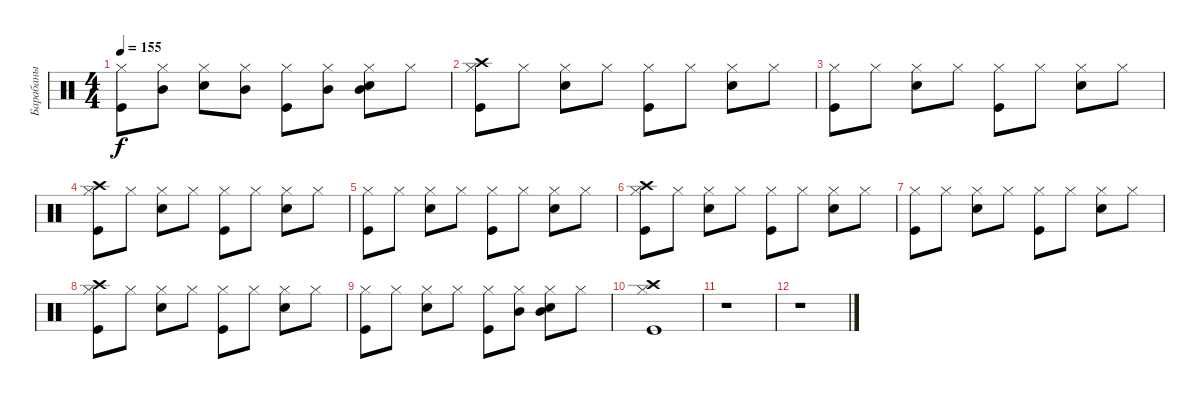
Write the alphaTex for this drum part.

\track ("Барабаны" "Барабаны") {instrument percussion}
\staff {score}
\articulation defaults
\ts (4 4)
\tempo 155
\clef neutral
\ks c
("Kick (hit)" "Hi-Hat (closed)").8{dy f} ("Hi-Hat (closed)" "Mid Tom (hit)").8 ("Snare (hit) 2" "Hi-Hat (closed)").8 ("Hi-Hat (closed)" "Mid Tom (hit)").8 ("Kick (hit)" "Hi-Hat (closed)").8 ("Hi-Hat (closed)" "Mid Tom (hit)").8 ("Snare (hit) 2" "Hi-Hat (closed)" "Mid Tom (hit)").8 "Hi-Hat (closed)".8 |
("Kick (hit)" "Hi-Hat (closed)" "Crash high (hit)").8 "Hi-Hat (closed)".8 ("Snare (hit) 2" "Hi-Hat (closed)").8 "Hi-Hat (closed)".8 ("Kick (hit)" "Hi-Hat (closed)").8 "Hi-Hat (closed)".8 ("Snare (hit) 2" "Hi-Hat (closed)").8 "Hi-Hat (closed)".8 |
("Kick (hit)" "Hi-Hat (closed)").8 "Hi-Hat (closed)".8 ("Snare (hit) 2" "Hi-Hat (closed)").8 "Hi-Hat (closed)".8 ("Kick (hit)" "Hi-Hat (closed)").8 "Hi-Hat (closed)".8 ("Snare (hit) 2" "Hi-Hat (closed)").8 "Hi-Hat (closed)".8 |
("Kick (hit)" "Hi-Hat (closed)" "Crash high (hit)").8 "Hi-Hat (closed)".8 ("Snare (hit) 2" "Hi-Hat (closed)").8 "Hi-Hat (closed)".8 ("Kick (hit)" "Hi-Hat (closed)").8 "Hi-Hat (closed)".8 ("Snare (hit) 2" "Hi-Hat (closed)").8 "Hi-Hat (closed)".8 |
("Kick (hit)" "Hi-Hat (closed)").8 "Hi-Hat (closed)".8 ("Snare (hit) 2" "Hi-Hat (closed)").8 "Hi-Hat (closed)".8 ("Kick (hit)" "Hi-Hat (closed)").8 "Hi-Hat (closed)".8 ("Snare (hit) 2" "Hi-Hat (closed)").8 "Hi-Hat (closed)".8 |
("Kick (hit)" "Hi-Hat (closed)" "Crash high (hit)").8 "Hi-Hat (closed)".8 ("Snare (hit) 2" "Hi-Hat (closed)").8 "Hi-Hat (closed)".8 ("Kick (hit)" "Hi-Hat (closed)").8 "Hi-Hat (closed)".8 ("Snare (hit) 2" "Hi-Hat (closed)").8 "Hi-Hat (closed)".8 |
("Kick (hit)" "Hi-Hat (closed)").8 "Hi-Hat (closed)".8 ("Snare (hit) 2" "Hi-Hat (closed)").8 "Hi-Hat (closed)".8 ("Kick (hit)" "Hi-Hat (closed)").8 "Hi-Hat (closed)".8 ("Snare (hit) 2" "Hi-Hat (closed)").8 "Hi-Hat (closed)".8 |
("Kick (hit)" "Hi-Hat (closed)" "Crash high (hit)").8 "Hi-Hat (closed)".8 ("Snare (hit) 2" "Hi-Hat (closed)").8 "Hi-Hat (closed)".8 ("Kick (hit)" "Hi-Hat (closed)").8 "Hi-Hat (closed)".8 ("Snare (hit) 2" "Hi-Hat (closed)").8 "Hi-Hat (closed)".8 |
("Kick (hit)" "Hi-Hat (closed)").8 "Hi-Hat (closed)".8 ("Snare (hit) 2" "Hi-Hat (closed)").8 "Hi-Hat (closed)".8 ("Kick (hit)" "Hi-Hat (closed)").8 ("Hi-Hat (closed)" "Mid Tom (hit)").8 ("Snare (hit) 2" "Hi-Hat (closed)" "Mid Tom (hit)").8 "Hi-Hat (closed)".8 |
("Kick (hit)" "Hi-Hat (closed)" "Crash high (hit)").1 |
r.1 |
r.1
